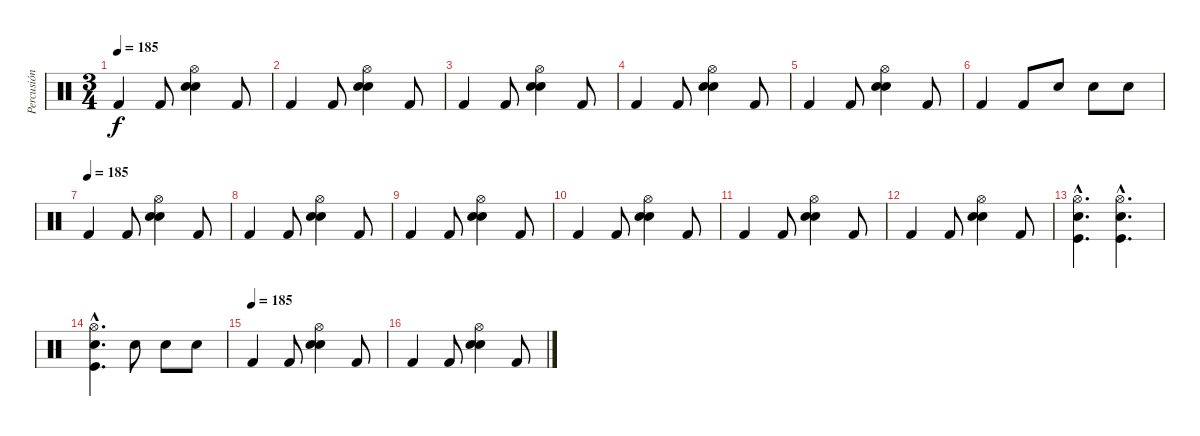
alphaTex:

\track ("Percusión" "Percusión") {instrument percussion}
\staff {score}
\articulation defaults
\ts (3 4)
\tempo 185
\clef neutral
\ks c "Kick (hit) 2".4{dy f} "Kick (hit) 2".8
("Hi-Hat (open)" "Electric Snare (hit)" "Snare (hit) 2").4 "Kick (hit) 2".8 |
"Kick (hit) 2".4 "Kick (hit) 2".8 ("Hi-Hat (open)" "Electric Snare (hit)" "Snare (hit) 2").4 "Kick (hit) 2".8 |
"Kick (hit) 2".4 "Kick (hit) 2".8 ("Hi-Hat (open)" "Electric Snare (hit)" "Snare (hit) 2").4 "Kick (hit) 2".8 |
"Kick (hit) 2".4 "Kick (hit) 2".8 ("Hi-Hat (open)" "Electric Snare (hit)" "Snare (hit) 2").4 "Kick (hit) 2".8 |
"Kick (hit) 2".4 "Kick (hit) 2".8 ("Hi-Hat (open)" "Electric Snare (hit)" "Snare (hit) 2").4 "Kick (hit) 2".8 |
"Kick (hit) 2".4 "Kick (hit) 2".8 "Electric Snare (hit)".8 "Electric Snare (hit)".8 "Electric Snare (hit)".8 |
\tempo (185)
"Kick (hit) 2".4 "Kick (hit) 2".8 ("Hi-Hat (open)" "Electric Snare (hit)" "Snare (hit) 2").4 "Kick (hit) 2".8 |
"Kick (hit) 2".4 "Kick (hit) 2".8 ("Hi-Hat (open)" "Electric Snare (hit)" "Snare (hit) 2").4 "Kick (hit) 2".8 |
"Kick (hit) 2".4 "Kick (hit) 2".8 ("Hi-Hat (open)" "Electric Snare (hit)" "Snare (hit) 2").4 "Kick (hit) 2".8 |
"Kick (hit) 2".4 "Kick (hit) 2".8 ("Hi-Hat (open)" "Electric Snare (hit)" "Snare (hit) 2").4 "Kick (hit) 2".8 |
"Kick (hit) 2".4 "Kick (hit) 2".8 ("Hi-Hat (open)" "Electric Snare (hit)" "Snare (hit) 2").4 "Kick (hit) 2".8 |
"Kick (hit) 2".4 "Kick (hit) 2".8 ("Hi-Hat (open)" "Electric Snare (hit)" "Snare (hit) 2").4 "Kick (hit) 2".8 |
("Hi-Hat (open)"{hac} "Electric Snare (hit)"{hac} "Kick (hit)"{hac}).4{d} ("Hi-Hat (open)"{hac} "Electric Snare (hit)"{hac} "Kick (hit)"{hac}).4{d} |
("Hi-Hat (open)"{hac} "Electric Snare (hit)"{hac} "Kick (hit)"{hac}).4{d} "Electric Snare (hit)".8 "Electric Snare (hit)".8 "Electric Snare (hit)".8 |
\tempo (185)
"Kick (hit) 2".4 "Kick (hit) 2".8 ("Hi-Hat (open)" "Electric Snare (hit)" "Snare (hit) 2").4 "Kick (hit) 2".8 |
"Kick (hit) 2".4 "Kick (hit) 2".8 ("Hi-Hat (open)" "Electric Snare (hit)" "Snare (hit) 2").4 "Kick (hit) 2".8
